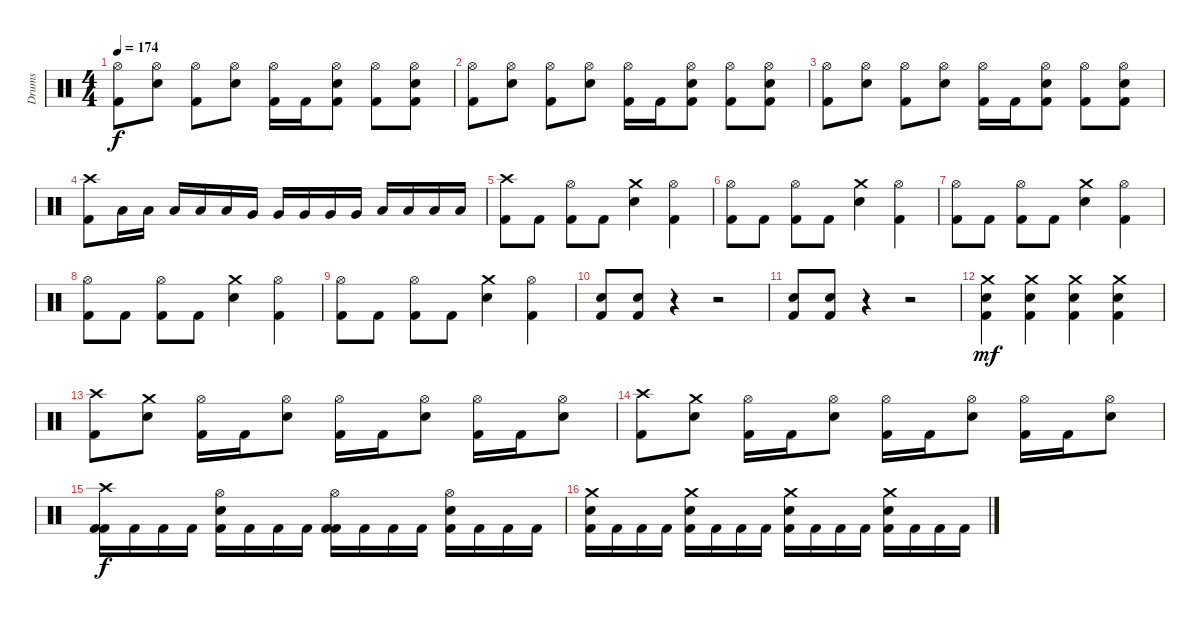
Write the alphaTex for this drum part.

\track ("Drums" "Drums") {instrument percussion}
\staff {score}
\articulation defaults
\ts (4 4)
\tempo 174
\clef neutral
\ks c
("Hi-Hat (open)" "Kick (hit) 2").8{dy f} ("Hi-Hat (open)" "Electric Snare (hit)").8 ("Hi-Hat (open)" "Kick (hit) 2").8 ("Hi-Hat (open)" "Electric Snare (hit)").8 ("Hi-Hat (open)" "Kick (hit) 2").16 "Kick (hit) 2".16 ("Hi-Hat (open)" "Electric Snare (hit)" "Kick (hit) 2").8 ("Hi-Hat (open)" "Kick (hit) 2").8 ("Hi-Hat (open)" "Electric Snare (hit)" "Kick (hit) 2").8 |
("Hi-Hat (open)" "Kick (hit) 2").8 ("Hi-Hat (open)" "Electric Snare (hit)").8 ("Hi-Hat (open)" "Kick (hit) 2").8 ("Hi-Hat (open)" "Electric Snare (hit)").8 ("Hi-Hat (open)" "Kick (hit) 2").16 "Kick (hit) 2".16 ("Hi-Hat (open)" "Electric Snare (hit)" "Kick (hit) 2").8 ("Hi-Hat (open)" "Kick (hit) 2").8 ("Hi-Hat (open)" "Electric Snare (hit)" "Kick (hit) 2").8 |
("Hi-Hat (open)" "Kick (hit) 2").8 ("Hi-Hat (open)" "Electric Snare (hit)").8 ("Hi-Hat (open)" "Kick (hit) 2").8 ("Hi-Hat (open)" "Electric Snare (hit)").8 ("Hi-Hat (open)" "Kick (hit) 2").16 "Kick (hit) 2".16 ("Hi-Hat (open)" "Electric Snare (hit)" "Kick (hit) 2").8 ("Hi-Hat (open)" "Kick (hit) 2").8 ("Hi-Hat (open)" "Electric Snare (hit)" "Kick (hit) 2").8 |
("Crash high (hit)" "Kick (hit) 2").8 "Low Tom (hit)".16 "Low Tom (hit)".16 "Low Tom (hit)".16 "Low Tom (hit)".16 "Low Tom (hit)".16 "Very Low Tom (hit)".16 "Very Low Tom (hit)".16 "Very Low Tom (hit)".16 "Very Low Tom (hit)".16 "Very Low Tom (hit)".16 "Low Floor Tom (hit)".16 "Low Floor Tom (hit)".16 "Low Floor Tom (hit)".16 "Low Floor Tom (hit)".16 |
("Crash high (hit)" "Kick (hit) 2").8 "Kick (hit) 2".8 ("Hi-Hat (open)" "Kick (hit) 2").8 "Kick (hit) 2".8 ("Crash medium (hit)" "Electric Snare (hit)").4 ("Hi-Hat (open)" "Kick (hit) 2").4 |
("Hi-Hat (open)" "Kick (hit) 2").8 "Kick (hit) 2".8 ("Hi-Hat (open)" "Kick (hit) 2").8 "Kick (hit) 2".8 ("Crash medium (hit)" "Electric Snare (hit)").4 ("Hi-Hat (open)" "Kick (hit) 2").4 |
("Hi-Hat (open)" "Kick (hit) 2").8 "Kick (hit) 2".8 ("Hi-Hat (open)" "Kick (hit) 2").8 "Kick (hit) 2".8 ("Crash medium (hit)" "Electric Snare (hit)").4 ("Hi-Hat (open)" "Kick (hit) 2").4 |
("Hi-Hat (open)" "Kick (hit) 2").8 "Kick (hit) 2".8 ("Hi-Hat (open)" "Kick (hit) 2").8 "Kick (hit) 2".8 ("Crash medium (hit)" "Electric Snare (hit)").4 ("Hi-Hat (open)" "Kick (hit) 2").4 |
("Hi-Hat (open)" "Kick (hit) 2").8 "Kick (hit) 2".8 ("Hi-Hat (open)" "Kick (hit) 2").8 "Kick (hit) 2".8 ("Crash medium (hit)" "Electric Snare (hit)").4 ("Hi-Hat (open)" "Kick (hit) 2").4 |
("Kick (hit) 2" "Electric Snare (hit)").8 ("Kick (hit) 2" "Electric Snare (hit)").8 r.4 r.2 |
("Kick (hit) 2" "Electric Snare (hit)").8 ("Kick (hit) 2" "Electric Snare (hit)").8 r.4 r.2 |
("Crash medium (hit)" "Kick (hit) 2" "Electric Snare (hit)").4{dy mf} ("Crash medium (hit)" "Kick (hit) 2" "Electric Snare (hit)").4 ("Crash medium (hit)" "Kick (hit) 2" "Electric Snare (hit)").4 ("Crash medium (hit)" "Kick (hit) 2" "Electric Snare (hit)").4 |
("Crash high (hit)" "Kick (hit) 2").8 ("Crash medium (hit)" "Electric Snare (hit)").8 ("Hi-Hat (open)" "Kick (hit) 2").16 "Kick (hit) 2".16 ("Hi-Hat (open)" "Electric Snare (hit)").8 ("Hi-Hat (open)" "Kick (hit) 2").16 "Kick (hit) 2".16 ("Hi-Hat (open)" "Electric Snare (hit)").8 ("Hi-Hat (open)" "Kick (hit) 2").16 "Kick (hit) 2".16 ("Hi-Hat (open)" "Electric Snare (hit)").8 |
("Crash high (hit)" "Kick (hit) 2").8 ("Crash medium (hit)" "Electric Snare (hit)").8 ("Hi-Hat (open)" "Kick (hit) 2").16 "Kick (hit) 2".16 ("Hi-Hat (open)" "Electric Snare (hit)").8 ("Hi-Hat (open)" "Kick (hit) 2").16 "Kick (hit) 2".16 ("Hi-Hat (open)" "Electric Snare (hit)").8 ("Hi-Hat (open)" "Kick (hit) 2").16 "Kick (hit) 2".16 ("Hi-Hat (open)" "Electric Snare (hit)").8 |
("Crash high (hit)" "Kick (hit) 2" "Kick (hit) 2").16{dy f} "Kick (hit) 2".16 "Kick (hit) 2".16 "Kick (hit) 2".16 ("Hi-Hat (open)" "Electric Snare (hit)" "Kick (hit) 2").16 "Kick (hit) 2".16 "Kick (hit) 2".16 "Kick (hit) 2".16 ("Hi-Hat (open)" "Kick (hit) 2" "Kick (hit) 2").16 "Kick (hit) 2".16 "Kick (hit) 2".16 "Kick (hit) 2".16 ("Hi-Hat (open)" "Electric Snare (hit)" "Kick (hit) 2").16 "Kick (hit) 2".16 "Kick (hit) 2".16 "Kick (hit) 2".16 |
("Crash medium (hit)" "Electric Snare (hit)" "Kick (hit) 2").16 "Kick (hit) 2".16 "Kick (hit) 2".16 "Kick (hit) 2".16 ("Crash medium (hit)" "Electric Snare (hit)" "Kick (hit) 2").16 "Kick (hit) 2".16 "Kick (hit) 2".16 "Kick (hit) 2".16 ("Crash medium (hit)" "Electric Snare (hit)" "Kick (hit) 2").16 "Kick (hit) 2".16 "Kick (hit) 2".16 "Kick (hit) 2".16 ("Crash medium (hit)" "Electric Snare (hit)" "Kick (hit) 2").16 "Kick (hit) 2".16 "Kick (hit) 2".16 "Kick (hit) 2".16
